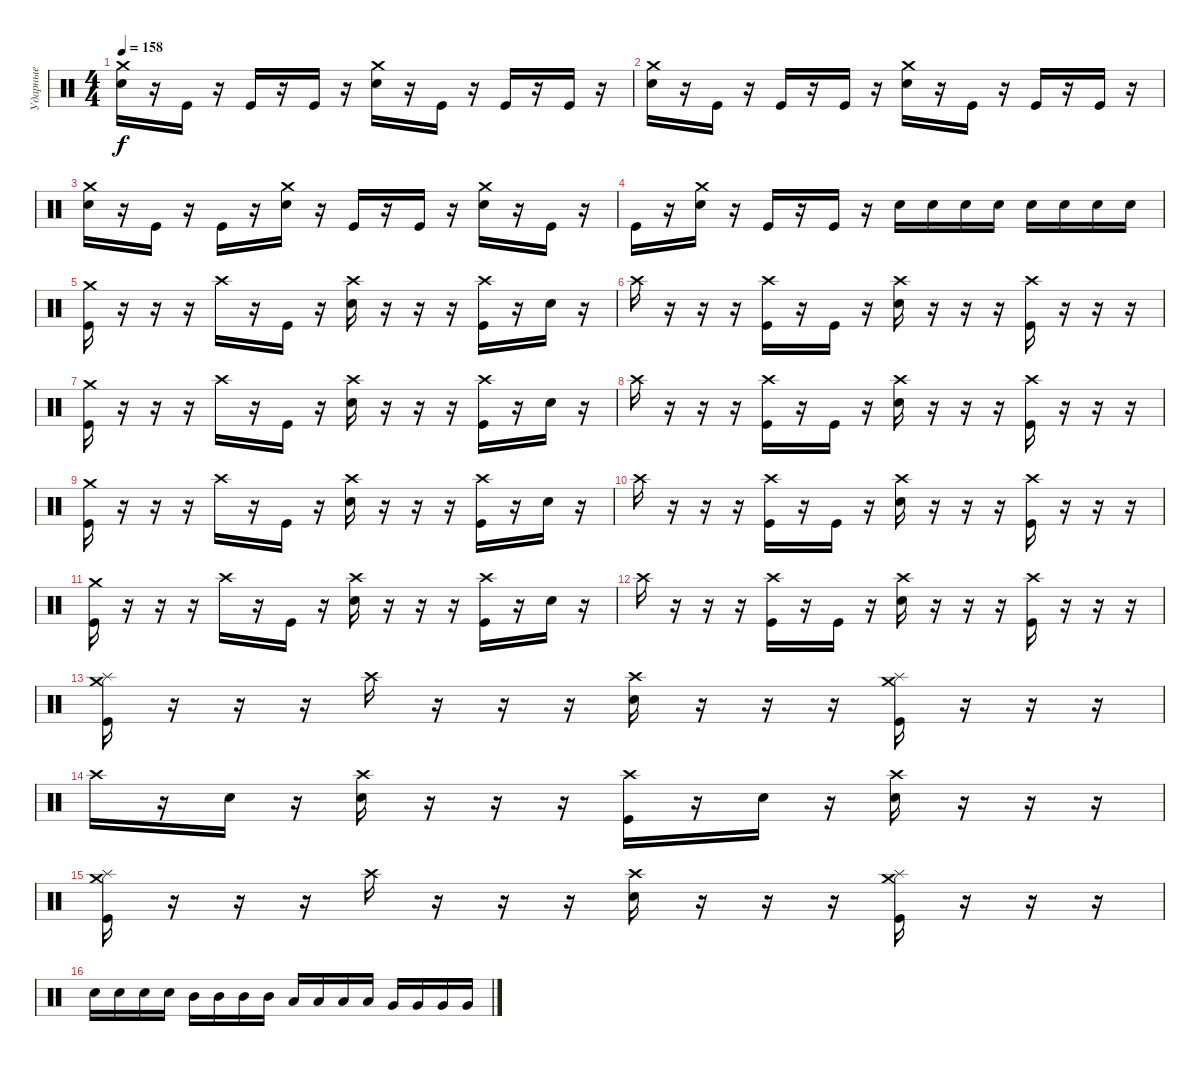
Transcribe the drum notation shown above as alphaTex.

\track ("Ударные" "Ударные") {instrument percussion}
\staff {score}
\articulation defaults
\ts (4 4)
\tempo 158
\clef neutral
\ks c
("Crash medium (hit)" "Electric Snare (hit)").16{dy f} r.16 "Kick (hit)".16 r.16 "Kick (hit)".16 r.16 "Kick (hit)".16 r.16 ("Crash medium (hit)" "Electric Snare (hit)").16 r.16 "Kick (hit)".16 r.16 "Kick (hit)".16 r.16 "Kick (hit)".16 r.16 |
("Crash medium (hit)" "Electric Snare (hit)").16 r.16 "Kick (hit)".16 r.16 "Kick (hit)".16 r.16 "Kick (hit)".16 r.16 ("Crash medium (hit)" "Electric Snare (hit)").16 r.16 "Kick (hit)".16 r.16 "Kick (hit)".16 r.16 "Kick (hit)".16 r.16 |
("Crash medium (hit)" "Electric Snare (hit)").16 r.16 "Kick (hit)".16 r.16 "Kick (hit)".16 r.16 ("Crash medium (hit)" "Electric Snare (hit)").16 r.16 "Kick (hit)".16 r.16 "Kick (hit)".16 r.16 ("Crash medium (hit)" "Electric Snare (hit)").16 r.16 "Kick (hit)".16 r.16 |
"Kick (hit)".16 r.16 ("Crash medium (hit)" "Electric Snare (hit)").16 r.16 "Kick (hit)".16 r.16 "Kick (hit)".16 r.16 "Electric Snare (hit)".16 "Electric Snare (hit)".16 "Electric Snare (hit)".16 "Electric Snare (hit)".16 "Electric Snare (hit)".16 "Electric Snare (hit)".16 "Electric Snare (hit)".16 "Electric Snare (hit)".16 |
("Crash medium (hit)" "Kick (hit)").16 r.16 r.16 r.16 "Crash high (hit)".16 r.16 "Kick (hit)".16 r.16 ("Crash high (hit)" "Electric Snare (hit)").16 r.16 r.16 r.16 ("Crash high (hit)" "Kick (hit)").16 r.16 "Electric Snare (hit)".16 r.16 |
"Crash high (hit)".16 r.16 r.16 r.16 ("Crash high (hit)" "Kick (hit)").16 r.16 "Kick (hit)".16 r.16 ("Crash high (hit)" "Electric Snare (hit)").16 r.16 r.16 r.16 ("Crash high (hit)" "Kick (hit)").16 r.16 r.16 r.16 |
("Crash medium (hit)" "Kick (hit)").16 r.16 r.16 r.16 "Crash high (hit)".16 r.16 "Kick (hit)".16 r.16 ("Crash high (hit)" "Electric Snare (hit)").16 r.16 r.16 r.16 ("Crash high (hit)" "Kick (hit)").16 r.16 "Electric Snare (hit)".16 r.16 |
"Crash high (hit)".16 r.16 r.16 r.16 ("Crash high (hit)" "Kick (hit)").16 r.16 "Kick (hit)".16 r.16 ("Crash high (hit)" "Electric Snare (hit)").16 r.16 r.16 r.16 ("Crash high (hit)" "Kick (hit)").16 r.16 r.16 r.16 |
("Crash medium (hit)" "Kick (hit)").16 r.16 r.16 r.16 "Crash high (hit)".16 r.16 "Kick (hit)".16 r.16 ("Crash high (hit)" "Electric Snare (hit)").16 r.16 r.16 r.16 ("Crash high (hit)" "Kick (hit)").16 r.16 "Electric Snare (hit)".16 r.16 |
"Crash high (hit)".16 r.16 r.16 r.16 ("Crash high (hit)" "Kick (hit)").16 r.16 "Kick (hit)".16 r.16 ("Crash high (hit)" "Electric Snare (hit)").16 r.16 r.16 r.16 ("Crash high (hit)" "Kick (hit)").16 r.16 r.16 r.16 |
("Crash medium (hit)" "Kick (hit)").16 r.16 r.16 r.16 "Crash high (hit)".16 r.16 "Kick (hit)".16 r.16 ("Crash high (hit)" "Electric Snare (hit)").16 r.16 r.16 r.16 ("Crash high (hit)" "Kick (hit)").16 r.16 "Electric Snare (hit)".16 r.16 |
"Crash high (hit)".16 r.16 r.16 r.16 ("Crash high (hit)" "Kick (hit)").16 r.16 "Kick (hit)".16 r.16 ("Crash high (hit)" "Electric Snare (hit)").16 r.16 r.16 r.16 ("Crash high (hit)" "Kick (hit)").16 r.16 r.16 r.16 |
("Splash (hit)" "Crash medium (hit)" "Kick (hit)").16 r.16 r.16 r.16 "Crash high (hit)".16 r.16 r.16 r.16 ("Crash high (hit)" "Electric Snare (hit)").16 r.16 r.16 r.16 ("Splash (hit)" "Crash medium (hit)" "Kick (hit)").16 r.16 r.16 r.16 |
"Crash high (hit)".16 r.16 "Electric Snare (hit)".16 r.16 ("Crash high (hit)" "Electric Snare (hit)").16 r.16 r.16 r.16 ("Crash high (hit)" "Kick (hit)").16 r.16 "Electric Snare (hit)".16 r.16 ("Crash high (hit)" "Electric Snare (hit)").16 r.16 r.16 r.16 |
("Splash (hit)" "Crash medium (hit)" "Kick (hit)").16 r.16 r.16 r.16 "Crash high (hit)".16 r.16 r.16 r.16 ("Crash high (hit)" "Electric Snare (hit)").16 r.16 r.16 r.16 ("Splash (hit)" "Crash medium (hit)" "Kick (hit)").16 r.16 r.16 r.16 |
"Electric Snare (hit)".16 "Electric Snare (hit)".16 "Electric Snare (hit)".16 "Electric Snare (hit)".16 "Mid Tom (hit)".16 "Mid Tom (hit)".16 "Mid Tom (hit)".16 "Mid Tom (hit)".16 "Low Tom (hit)".16 "Low Tom (hit)".16 "Low Tom (hit)".16 "Low Tom (hit)".16 "Very Low Tom (hit)".16 "Very Low Tom (hit)".16 "Very Low Tom (hit)".16 "Very Low Tom (hit)".16
